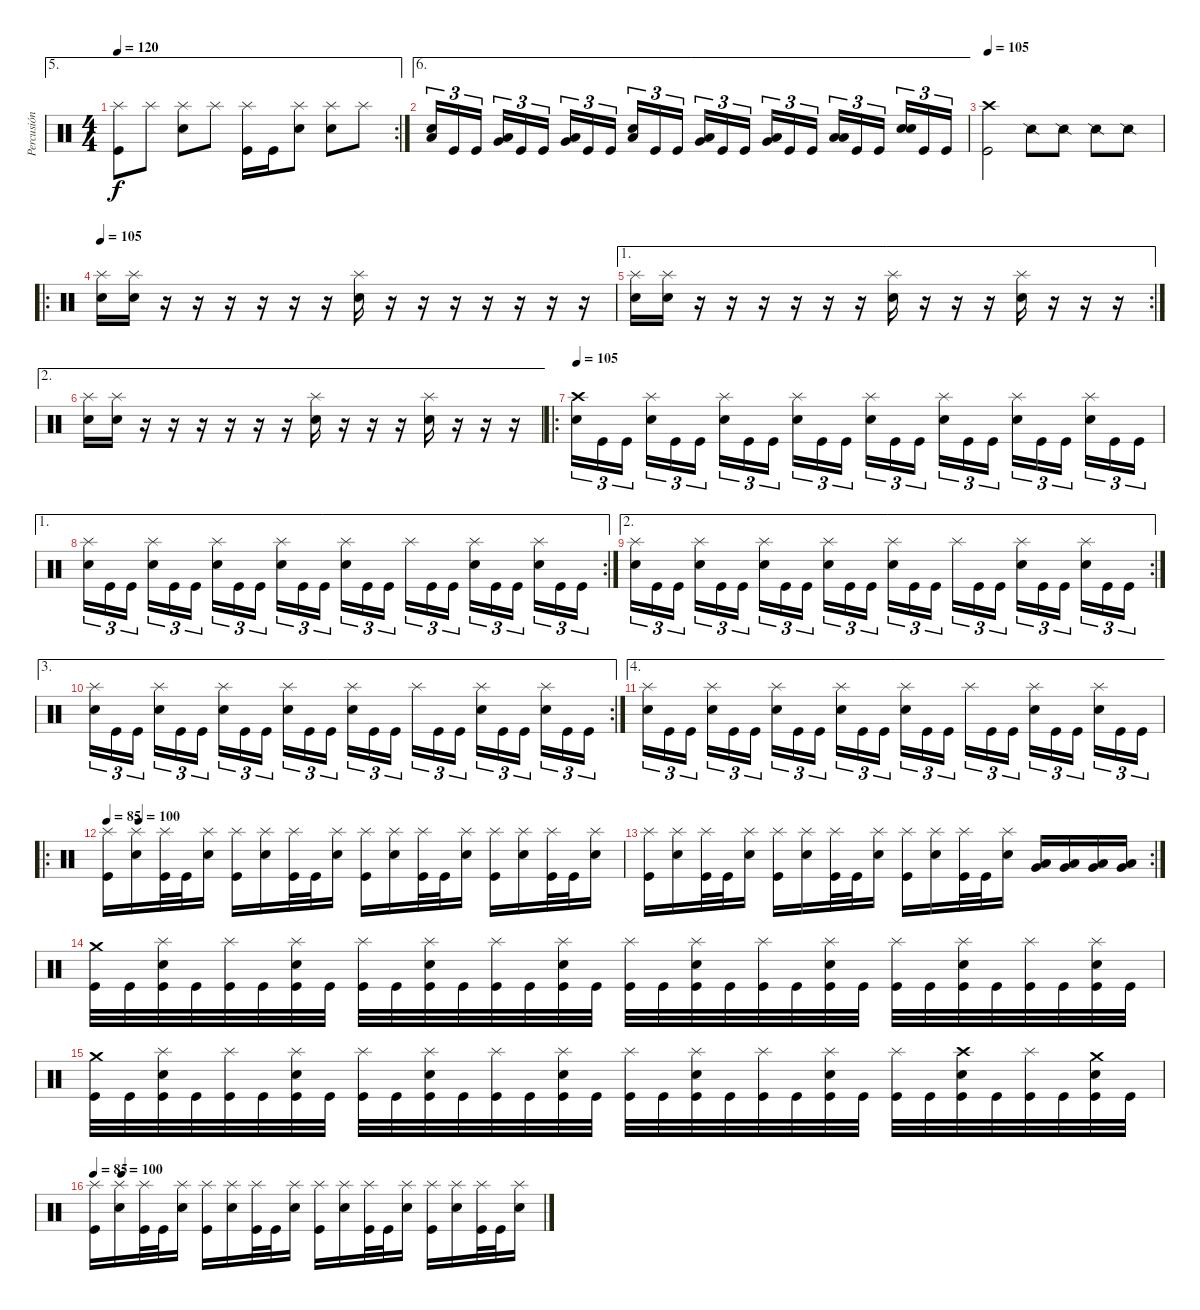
\track ("Percusión" "Percusión") {instrument percussion}
\staff {score}
\articulation defaults
\ae 5
\rc 2
\ts (4 4)
\tempo 120
\clef neutral
\ks c
("Splash (hit)" "Kick (hit)").8{dy f} "Splash (hit)".8 ("Electric Snare (hit)" "Splash (hit)").8 "Splash (hit)".8 ("Splash (hit)" "Kick (hit)").16 "Kick (hit)".16 ("Electric Snare (hit)" "Splash (hit)").8 ("Electric Snare (hit)" "Splash (hit)").8 "Splash (hit)".8 |
\ae 6
("Low Tom (hit)" "Electric Snare (hit)").16{tu (3 2) bd 480} "Kick (hit)".16{tu (3 2)} "Kick (hit)".16{tu (3 2) beam splitsecondary} ("Very Low Tom (hit)" "Low Tom (hit)").16{tu (3 2) bd 480} "Kick (hit)".16{tu (3 2)} "Kick (hit)".16{tu (3 2)} ("Low Floor Tom (hit)" "Very Low Tom (hit)").16{tu (3 2) bd 480} "Kick (hit)".16{tu (3 2)} "Kick (hit)".16{tu (3 2) beam splitsecondary} ("Low Tom (hit)" "Electric Snare (hit)").16{tu (3 2) bd 480} "Kick (hit)".16{tu (3 2)} "Kick (hit)".16{tu (3 2)} ("Very Low Tom (hit)" "Low Tom (hit)").16{tu (3 2) bd 480} "Kick (hit)".16{tu (3 2)} "Kick (hit)".16{tu (3 2) beam splitsecondary} ("Low Floor Tom (hit)" "Very Low Tom (hit)").16{tu (3 2) bd 480} "Kick (hit)".16{tu (3 2)} "Kick (hit)".16{tu (3 2)} ("Low Floor Tom (hit)" "Low Floor Tom (hit)").16{tu (3 2) bd 480} "Kick (hit)".16{tu (3 2)} "Kick (hit)".16{tu (3 2) beam splitsecondary} ("Electric Snare (hit)" "Electric Snare (hit)").16{tu (3 2) bd 480} "Kick (hit)".16{tu (3 2)} "Kick (hit)".16{tu (3 2)} |
\tempo 105
("Crash high (hit)" "Kick (hit)").2 "Snare (side stick) 2".8 "Snare (side stick) 2".8 "Snare (side stick) 2".8 "Snare (side stick) 2".8 |
\ro
\tempo 105
("Splash (hit)" "Electric Snare (hit)").16 ("Splash (hit)" "Electric Snare (hit)").16 r.16 r.16 r.16 r.16 r.16 r.16 ("Splash (hit)" "Electric Snare (hit)").16 r.16 r.16 r.16 r.16 r.16 r.16 r.16 |
\ae 1
\rc 2
("Splash (hit)" "Electric Snare (hit)").16 ("Splash (hit)" "Electric Snare (hit)").16 r.16 r.16 r.16 r.16 r.16 r.16 ("Splash (hit)" "Electric Snare (hit)").16 r.16 r.16 r.16 ("Splash (hit)" "Electric Snare (hit)").16 r.16 r.16 r.16 |
\ae 2
("Electric Snare (hit)" "Splash (hit)").16 ("Electric Snare (hit)" "Splash (hit)").16 r.16 r.16 r.16 r.16 r.16 r.16 ("Splash (hit)" "Electric Snare (hit)").16 r.16 r.16 r.16 ("Electric Snare (hit)" "Splash (hit)").16 r.16 r.16 r.16 |
\ro
\tempo 110
\tempo 105
("Crash high (hit)" "Electric Snare (hit)").16{tu (3 2)} "Kick (hit)".16{tu (3 2)} "Kick (hit)".16{tu (3 2) beam splitsecondary} ("Electric Snare (hit)" "Splash (hit)").16{tu (3 2)} "Kick (hit)".16{tu (3 2)} "Kick (hit)".16{tu (3 2)} ("Electric Snare (hit)" "Splash (hit)").16{tu (3 2)} "Kick (hit)".16{tu (3 2)} "Kick (hit)".16{tu (3 2) beam splitsecondary} ("Electric Snare (hit)" "Splash (hit)").16{tu (3 2)} "Kick (hit)".16{tu (3 2)} "Kick (hit)".16{tu (3 2)} ("Electric Snare (hit)" "Splash (hit)").16{tu (3 2)} "Kick (hit)".16{tu (3 2)} "Kick (hit)".16{tu (3 2) beam splitsecondary} ("Electric Snare (hit)" "Splash (hit)").16{tu (3 2)} "Kick (hit)".16{tu (3 2)} "Kick (hit)".16{tu (3 2)} ("Electric Snare (hit)" "Splash (hit)").16{tu (3 2)} "Kick (hit)".16{tu (3 2)} "Kick (hit)".16{tu (3 2) beam splitsecondary} ("Electric Snare (hit)" "Splash (hit)").16{tu (3 2)} "Kick (hit)".16{tu (3 2)} "Kick (hit)".16{tu (3 2)} |
\ae 1
\rc 2
("Electric Snare (hit)" "Splash (hit)").16{tu (3 2)} "Kick (hit)".16{tu (3 2)} "Kick (hit)".16{tu (3 2) beam splitsecondary} ("Electric Snare (hit)" "Splash (hit)").16{tu (3 2)} "Kick (hit)".16{tu (3 2)} "Kick (hit)".16{tu (3 2)} ("Electric Snare (hit)" "Splash (hit)").16{tu (3 2)} "Kick (hit)".16{tu (3 2)} "Kick (hit)".16{tu (3 2) beam splitsecondary} ("Electric Snare (hit)" "Splash (hit)").16{tu (3 2)} "Kick (hit)".16{tu (3 2)} "Kick (hit)".16{tu (3 2)} ("Electric Snare (hit)" "Splash (hit)").16{tu (3 2)} "Kick (hit)".16{tu (3 2)} "Kick (hit)".16{tu (3 2) beam splitsecondary} "Splash (hit)".16{tu (3 2)} "Kick (hit)".16{tu (3 2)} "Kick (hit)".16{tu (3 2)} ("Electric Snare (hit)" "Splash (hit)").16{tu (3 2)} "Kick (hit)".16{tu (3 2)} "Kick (hit)".16{tu (3 2) beam splitsecondary} ("Electric Snare (hit)" "Splash (hit)").16{tu (3 2)} "Kick (hit)".16{tu (3 2)} "Kick (hit)".16{tu (3 2)} |
\ae 2
\rc 2
("Electric Snare (hit)" "Splash (hit)").16{tu (3 2)} "Kick (hit)".16{tu (3 2)} "Kick (hit)".16{tu (3 2) beam splitsecondary} ("Electric Snare (hit)" "Splash (hit)").16{tu (3 2)} "Kick (hit)".16{tu (3 2)} "Kick (hit)".16{tu (3 2)} ("Electric Snare (hit)" "Splash (hit)").16{tu (3 2)} "Kick (hit)".16{tu (3 2)} "Kick (hit)".16{tu (3 2) beam splitsecondary} ("Electric Snare (hit)" "Splash (hit)").16{tu (3 2)} "Kick (hit)".16{tu (3 2)} "Kick (hit)".16{tu (3 2)} ("Electric Snare (hit)" "Splash (hit)").16{tu (3 2)} "Kick (hit)".16{tu (3 2)} "Kick (hit)".16{tu (3 2) beam splitsecondary} "Splash (hit)".16{tu (3 2)} "Kick (hit)".16{tu (3 2)} "Kick (hit)".16{tu (3 2)} ("Electric Snare (hit)" "Splash (hit)").16{tu (3 2)} "Kick (hit)".16{tu (3 2)} "Kick (hit)".16{tu (3 2) beam splitsecondary} ("Electric Snare (hit)" "Splash (hit)").16{tu (3 2)} "Kick (hit)".16{tu (3 2)} "Kick (hit)".16{tu (3 2)} |
\ae 3
\rc 2
("Electric Snare (hit)" "Splash (hit)").16{tu (3 2)} "Kick (hit)".16{tu (3 2)} "Kick (hit)".16{tu (3 2) beam splitsecondary} ("Electric Snare (hit)" "Splash (hit)").16{tu (3 2)} "Kick (hit)".16{tu (3 2)} "Kick (hit)".16{tu (3 2)} ("Electric Snare (hit)" "Splash (hit)").16{tu (3 2)} "Kick (hit)".16{tu (3 2)} "Kick (hit)".16{tu (3 2) beam splitsecondary} ("Electric Snare (hit)" "Splash (hit)").16{tu (3 2)} "Kick (hit)".16{tu (3 2)} "Kick (hit)".16{tu (3 2)} ("Electric Snare (hit)" "Splash (hit)").16{tu (3 2)} "Kick (hit)".16{tu (3 2)} "Kick (hit)".16{tu (3 2) beam splitsecondary} "Splash (hit)".16{tu (3 2)} "Kick (hit)".16{tu (3 2)} "Kick (hit)".16{tu (3 2)} ("Electric Snare (hit)" "Splash (hit)").16{tu (3 2)} "Kick (hit)".16{tu (3 2)} "Kick (hit)".16{tu (3 2) beam splitsecondary} ("Electric Snare (hit)" "Splash (hit)").16{tu (3 2)} "Kick (hit)".16{tu (3 2)} "Kick (hit)".16{tu (3 2)} |
\ae 4
("Electric Snare (hit)" "Splash (hit)").16{tu (3 2)} "Kick (hit)".16{tu (3 2)} "Kick (hit)".16{tu (3 2) beam splitsecondary} ("Electric Snare (hit)" "Splash (hit)").16{tu (3 2)} "Kick (hit)".16{tu (3 2)} "Kick (hit)".16{tu (3 2)} ("Electric Snare (hit)" "Splash (hit)").16{tu (3 2)} "Kick (hit)".16{tu (3 2)} "Kick (hit)".16{tu (3 2) beam splitsecondary} ("Electric Snare (hit)" "Splash (hit)").16{tu (3 2)} "Kick (hit)".16{tu (3 2)} "Kick (hit)".16{tu (3 2)} ("Electric Snare (hit)" "Splash (hit)").16{tu (3 2)} "Kick (hit)".16{tu (3 2)} "Kick (hit)".16{tu (3 2) beam splitsecondary} "Splash (hit)".16{tu (3 2)} "Kick (hit)".16{tu (3 2)} "Kick (hit)".16{tu (3 2)} ("Electric Snare (hit)" "Splash (hit)").16{tu (3 2)} "Kick (hit)".16{tu (3 2)} "Kick (hit)".16{tu (3 2) beam splitsecondary} ("Electric Snare (hit)" "Splash (hit)").16{tu (3 2)} "Kick (hit)".16{tu (3 2)} "Kick (hit)".16{tu (3 2)} |
\ro
\tempo (100 0.0625)
\tempo 85
("Splash (hit)" "Kick (hit)").16 ("Electric Snare (hit)" "Splash (hit)").16 ("Splash (hit)" "Kick (hit)").32 "Kick (hit)".32 ("Electric Snare (hit)" "Splash (hit)").16 ("Splash (hit)" "Kick (hit)").16 ("Electric Snare (hit)" "Splash (hit)").16 ("Splash (hit)" "Kick (hit)").32 "Kick (hit)".32 ("Electric Snare (hit)" "Splash (hit)").16 ("Splash (hit)" "Kick (hit)").16 ("Electric Snare (hit)" "Splash (hit)").16 ("Splash (hit)" "Kick (hit)").32 "Kick (hit)".32 ("Electric Snare (hit)" "Splash (hit)").16 ("Splash (hit)" "Kick (hit)").16 ("Electric Snare (hit)" "Splash (hit)").16 ("Splash (hit)" "Kick (hit)").32 "Kick (hit)".32 ("Electric Snare (hit)" "Splash (hit)").16 |
\rc 2
("Splash (hit)" "Kick (hit)").16 ("Electric Snare (hit)" "Splash (hit)").16 ("Splash (hit)" "Kick (hit)").32 "Kick (hit)".32 ("Electric Snare (hit)" "Splash (hit)").16 ("Splash (hit)" "Kick (hit)").16 ("Electric Snare (hit)" "Splash (hit)").16 ("Splash (hit)" "Kick (hit)").32 "Kick (hit)".32 ("Electric Snare (hit)" "Splash (hit)").16 ("Splash (hit)" "Kick (hit)").16 ("Electric Snare (hit)" "Splash (hit)").16 ("Splash (hit)" "Kick (hit)").32 "Kick (hit)".32 ("Electric Snare (hit)" "Splash (hit)").16 ("Very Low Tom (hit)" "Low Floor Tom (hit)").16 ("Very Low Tom (hit)" "Low Floor Tom (hit)").16 ("Very Low Tom (hit)" "Low Floor Tom (hit)").16 ("Very Low Tom (hit)" "Low Floor Tom (hit)").16 |
("Crash medium (hit)" "Kick (hit)").32 "Kick (hit)".32 ("Electric Snare (hit)" "Splash (hit)" "Kick (hit)").32 "Kick (hit)".32 ("Splash (hit)" "Kick (hit)").32 "Kick (hit)".32 ("Electric Snare (hit)" "Splash (hit)" "Kick (hit)").32 "Kick (hit)".32 ("Splash (hit)" "Kick (hit)").32 "Kick (hit)".32 ("Electric Snare (hit)" "Splash (hit)" "Kick (hit)").32 "Kick (hit)".32 ("Splash (hit)" "Kick (hit)").32 "Kick (hit)".32 ("Electric Snare (hit)" "Splash (hit)" "Kick (hit)").32 "Kick (hit)".32 ("Splash (hit)" "Kick (hit)").32 "Kick (hit)".32 ("Electric Snare (hit)" "Splash (hit)" "Kick (hit)").32 "Kick (hit)".32 ("Splash (hit)" "Kick (hit)").32 "Kick (hit)".32 ("Electric Snare (hit)" "Splash (hit)" "Kick (hit)").32 "Kick (hit)".32 ("Splash (hit)" "Kick (hit)").32 "Kick (hit)".32 ("Electric Snare (hit)" "Splash (hit)" "Kick (hit)").32 "Kick (hit)".32 ("Splash (hit)" "Kick (hit)").32 "Kick (hit)".32 ("Electric Snare (hit)" "Splash (hit)" "Kick (hit)").32 "Kick (hit)".32 |
("Crash medium (hit)" "Kick (hit)").32 "Kick (hit)".32 ("Electric Snare (hit)" "Splash (hit)" "Kick (hit)").32 "Kick (hit)".32 ("Splash (hit)" "Kick (hit)").32 "Kick (hit)".32 ("Electric Snare (hit)" "Splash (hit)" "Kick (hit)").32 "Kick (hit)".32 ("Splash (hit)" "Kick (hit)").32 "Kick (hit)".32 ("Electric Snare (hit)" "Splash (hit)" "Kick (hit)").32 "Kick (hit)".32 ("Splash (hit)" "Kick (hit)").32 "Kick (hit)".32 ("Electric Snare (hit)" "Splash (hit)" "Kick (hit)").32 "Kick (hit)".32 ("Splash (hit)" "Kick (hit)").32 "Kick (hit)".32 ("Electric Snare (hit)" "Splash (hit)" "Kick (hit)").32 "Kick (hit)".32 ("Splash (hit)" "Kick (hit)").32 "Kick (hit)".32 ("Electric Snare (hit)" "Splash (hit)" "Kick (hit)").32 "Kick (hit)".32 ("Splash (hit)" "Kick (hit)").32 "Kick (hit)".32 ("Crash high (hit)" "Electric Snare (hit)" "Kick (hit)").32 "Kick (hit)".32 ("Splash (hit)" "Kick (hit)").32 "Kick (hit)".32 ("Crash medium (hit)" "Electric Snare (hit)" "Kick (hit)").32 "Kick (hit)".32 |
\tempo (100 0.0625)
\tempo 85
("Splash (hit)" "Kick (hit)").16 ("Electric Snare (hit)" "Splash (hit)").16 ("Splash (hit)" "Kick (hit)").32 "Kick (hit)".32 ("Electric Snare (hit)" "Splash (hit)").16 ("Splash (hit)" "Kick (hit)").16 ("Electric Snare (hit)" "Splash (hit)").16 ("Splash (hit)" "Kick (hit)").32 "Kick (hit)".32 ("Electric Snare (hit)" "Splash (hit)").16 ("Splash (hit)" "Kick (hit)").16 ("Electric Snare (hit)" "Splash (hit)").16 ("Splash (hit)" "Kick (hit)").32 "Kick (hit)".32 ("Electric Snare (hit)" "Splash (hit)").16 ("Splash (hit)" "Kick (hit)").16 ("Electric Snare (hit)" "Splash (hit)").16 ("Splash (hit)" "Kick (hit)").32 "Kick (hit)".32 ("Electric Snare (hit)" "Splash (hit)").16
